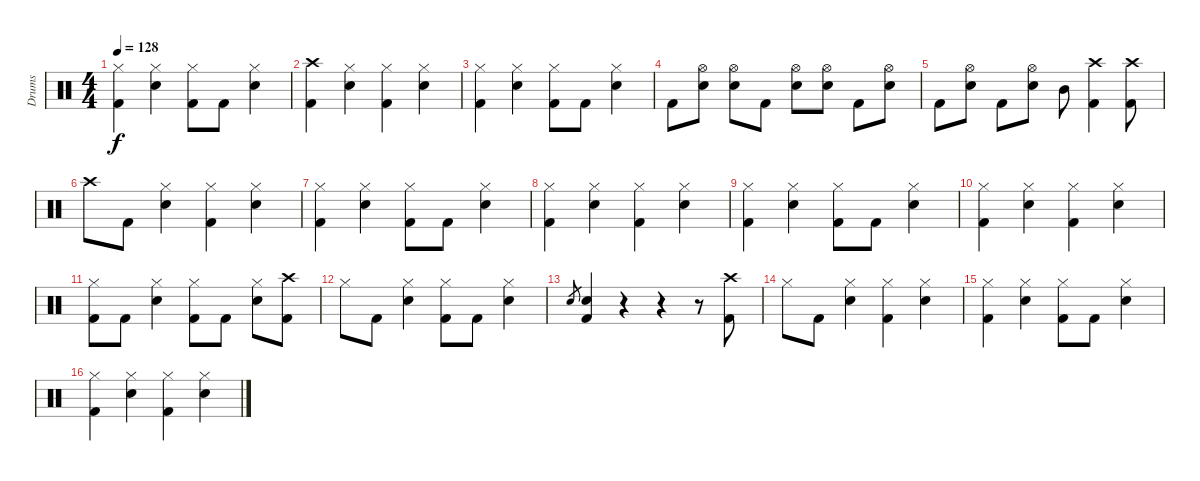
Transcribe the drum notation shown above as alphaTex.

\track ("Drums" "Drums") {instrument percussion}
\staff {score}
\articulation defaults
\ts (4 4)
\tempo 128
\clef neutral
\ks c
("Hi-Hat (closed)" "Kick (hit) 2").4{dy f} ("Hi-Hat (closed)" "Electric Snare (hit)").4 ("Hi-Hat (closed)" "Kick (hit) 2").8 "Kick (hit) 2".8 ("Hi-Hat (closed)" "Electric Snare (hit)").4 |
("Crash high (hit)" "Kick (hit) 2").4 ("Hi-Hat (closed)" "Electric Snare (hit)").4 ("Hi-Hat (closed)" "Kick (hit) 2").4 ("Hi-Hat (closed)" "Electric Snare (hit)").4 |
("Hi-Hat (closed)" "Kick (hit) 2").4 ("Hi-Hat (closed)" "Electric Snare (hit)").4 ("Hi-Hat (closed)" "Kick (hit) 2").8 "Kick (hit) 2".8 ("Hi-Hat (closed)" "Electric Snare (hit)").4 |
"Kick (hit) 2".8 ("Hi-Hat (open)" "Electric Snare (hit)").8 ("Hi-Hat (open)" "Electric Snare (hit)").8 "Kick (hit) 2".8 ("Hi-Hat (open)" "Electric Snare (hit)").8 ("Hi-Hat (open)" "Electric Snare (hit)").8 "Kick (hit) 2".8 ("Hi-Hat (open)" "Electric Snare (hit)").8 |
"Kick (hit) 2".8 ("Hi-Hat (open)" "Electric Snare (hit)").8 "Kick (hit) 2".8 ("Hi-Hat (open)" "Electric Snare (hit)").8 "Mid Tom (hit)".8 ("Crash high (hit)" "Kick (hit) 2").4 ("Crash high (hit)" "Kick (hit) 2").8 |
"Crash high (hit)".8 "Kick (hit) 2".8 ("Hi-Hat (closed)" "Electric Snare (hit)").4 ("Hi-Hat (closed)" "Kick (hit) 2").4 ("Hi-Hat (closed)" "Electric Snare (hit)").4 |
("Hi-Hat (closed)" "Kick (hit) 2").4 ("Hi-Hat (closed)" "Electric Snare (hit)").4 ("Hi-Hat (closed)" "Kick (hit) 2").8 "Kick (hit) 2".8 ("Hi-Hat (closed)" "Electric Snare (hit)").4 |
("Hi-Hat (closed)" "Kick (hit) 2").4 ("Hi-Hat (closed)" "Electric Snare (hit)").4 ("Hi-Hat (closed)" "Kick (hit) 2").4 ("Hi-Hat (closed)" "Electric Snare (hit)").4 |
("Hi-Hat (closed)" "Kick (hit) 2").4 ("Hi-Hat (closed)" "Electric Snare (hit)").4 ("Hi-Hat (closed)" "Kick (hit) 2").8 "Kick (hit) 2".8 ("Hi-Hat (closed)" "Electric Snare (hit)").4 |
("Hi-Hat (closed)" "Kick (hit) 2").4 ("Hi-Hat (closed)" "Electric Snare (hit)").4 ("Hi-Hat (closed)" "Kick (hit) 2").4 ("Hi-Hat (closed)" "Electric Snare (hit)").4 |
("Hi-Hat (closed)" "Kick (hit) 2").8 "Kick (hit) 2".8 ("Hi-Hat (closed)" "Electric Snare (hit)").4 ("Hi-Hat (closed)" "Kick (hit) 2").8 "Kick (hit) 2".8 ("Hi-Hat (closed)" "Electric Snare (hit)").8 ("Crash high (hit)" "Kick (hit) 2").8 |
"Hi-Hat (closed)".8 "Kick (hit) 2".8 ("Hi-Hat (closed)" "Electric Snare (hit)").4 ("Hi-Hat (closed)" "Kick (hit) 2").8 "Kick (hit) 2".8 ("Hi-Hat (closed)" "Electric Snare (hit)").4 |
"Electric Snare (hit)".8{gr} ("Electric Snare (hit)" "Kick (hit) 2").4 r.4 r.4 r.8 ("Crash high (hit)" "Kick (hit) 2").8 |
"Hi-Hat (closed)".8 "Kick (hit) 2".8 ("Hi-Hat (closed)" "Electric Snare (hit)").4 ("Hi-Hat (closed)" "Kick (hit) 2").4 ("Hi-Hat (closed)" "Electric Snare (hit)").4 |
("Hi-Hat (closed)" "Kick (hit) 2").4 ("Hi-Hat (closed)" "Electric Snare (hit)").4 ("Hi-Hat (closed)" "Kick (hit) 2").8 "Kick (hit) 2".8 ("Hi-Hat (closed)" "Electric Snare (hit)").4 |
("Hi-Hat (closed)" "Kick (hit) 2").4 ("Hi-Hat (closed)" "Electric Snare (hit)").4 ("Hi-Hat (closed)" "Kick (hit) 2").4 ("Hi-Hat (closed)" "Electric Snare (hit)").4
